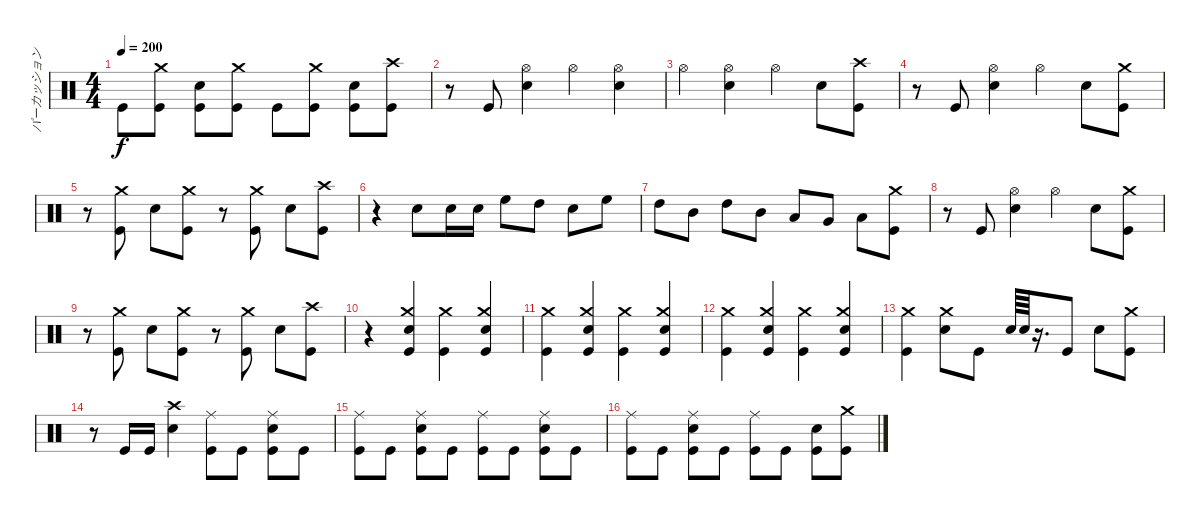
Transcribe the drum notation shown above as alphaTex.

\track ("パーカッション" "パーカッション") {instrument percussion}
\staff {score}
\articulation defaults
\ts (4 4)
\tempo 200
\clef neutral
\ks c "Kick (hit)".8{dy f}
("Kick (hit)" "Crash medium (hit)").8 ("Kick (hit)" "Snare (hit) 2").8 ("Kick (hit)" "Crash medium (hit)").8 "Kick (hit)".8 ("Kick (hit)" "Crash medium (hit)").8 ("Kick (hit)" "Snare (hit) 2").8 ("Kick (hit)" "Crash high (hit)").8 |
r.8 "Kick (hit)".8 ("Hi-Hat (open)" "Snare (hit) 2").4 "Hi-Hat (open)".4 ("Hi-Hat (open)" "Snare (hit) 2").4 |
"Hi-Hat (open)".4 ("Snare (hit) 2" "Hi-Hat (open)").4 "Hi-Hat (open)".4 "Snare (hit) 2".8 ("Kick (hit)" "Crash high (hit)").8 |
r.8 "Kick (hit)".8 ("Hi-Hat (open)" "Snare (hit) 2").4 "Hi-Hat (open)".4 "Snare (hit) 2".8 ("Crash medium (hit)" "Kick (hit)").8 |
r.8 ("Kick (hit)" "Crash medium (hit)").8 "Snare (hit) 2".8 ("Kick (hit)" "Crash medium (hit)").8 r.8 ("Kick (hit)" "Crash medium (hit)").8 "Snare (hit) 2".8 ("Kick (hit)" "Crash high (hit)").8 |
r.4 "Snare (hit) 2".8 "Snare (hit) 2".16 "Snare (hit) 2".16 "High Floor Tom (hit)".8 "High Tom (hit)".8 "Snare (hit) 2".8 "High Floor Tom (hit)".8 |
"High Tom (hit)".8 "Mid Tom (hit)".8 "High Tom (hit)".8 "Mid Tom (hit)".8 "Low Tom (hit)".8 "Very Low Tom (hit)".8 "Low Floor Tom (hit)".8 ("Crash medium (hit)" "Kick (hit)").8 |
r.8 "Kick (hit)".8 ("Hi-Hat (open)" "Snare (hit) 2").4 "Hi-Hat (open)".4 "Snare (hit) 2".8 ("Crash medium (hit)" "Kick (hit)").8 |
r.8 ("Kick (hit)" "Crash medium (hit)").8 "Snare (hit) 2".8 ("Kick (hit)" "Crash medium (hit)").8 r.8 ("Kick (hit)" "Crash medium (hit)").8 "Snare (hit) 2".8 ("Kick (hit)" "Crash high (hit)").8 |
r.4 ("Crash medium (hit)" "Kick (hit)" "Snare (hit) 2").4 ("Kick (hit)" "Crash medium (hit)").4 ("Crash medium (hit)" "Kick (hit)" "Snare (hit) 2").4 |
("Kick (hit)" "Crash medium (hit)").4 ("Crash medium (hit)" "Kick (hit)" "Snare (hit) 2").4 ("Kick (hit)" "Crash medium (hit)").4 ("Crash medium (hit)" "Kick (hit)" "Snare (hit) 2").4 |
("Kick (hit)" "Crash medium (hit)").4 ("Crash medium (hit)" "Kick (hit)" "Snare (hit) 2").4 ("Kick (hit)" "Crash medium (hit)").4 ("Crash medium (hit)" "Kick (hit)" "Snare (hit) 2").4 |
("Kick (hit)" "Crash medium (hit)").4 ("Crash medium (hit)" "Snare (hit) 2").8 "Kick (hit)".8 "Snare (hit) 2".64 "Snare (hit) 2".64 r.16{d} "Kick (hit)".8 "Snare (hit) 2".8 ("Crash medium (hit)" "Kick (hit)").8 |
r.8 "Kick (hit)".16 "Kick (hit)".16 ("Snare (hit) 2" "Crash high (hit)").4 ("Kick (hit)" "Ride (middle)").8 "Kick (hit)".8 ("Kick (hit)" "Ride (middle)" "Snare (hit) 2").8 "Kick (hit)".8 |
("Kick (hit)" "Ride (middle)").8 "Kick (hit)".8 ("Kick (hit)" "Ride (middle)" "Snare (hit) 2").8 "Kick (hit)".8 ("Kick (hit)" "Ride (middle)").8 "Kick (hit)".8 ("Kick (hit)" "Ride (middle)" "Snare (hit) 2").8 "Kick (hit)".8 |
("Kick (hit)" "Ride (middle)").8 "Kick (hit)".8 ("Kick (hit)" "Ride (middle)" "Snare (hit) 2").8 "Kick (hit)".8 ("Kick (hit)" "Ride (middle)").8 "Kick (hit)".8 ("Kick (hit)" "Snare (hit) 2").8 ("Kick (hit)" "Crash medium (hit)").8
